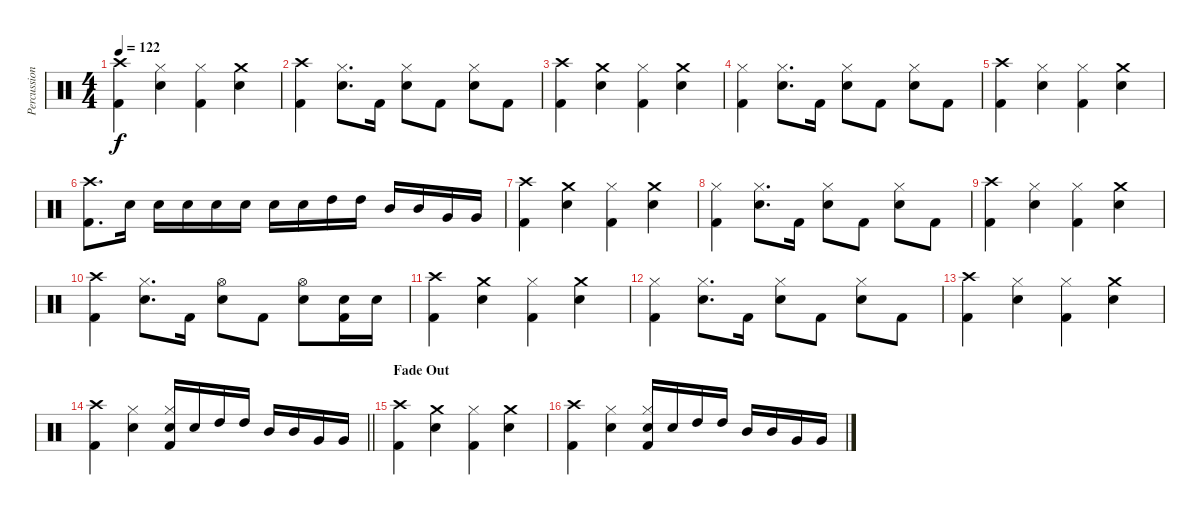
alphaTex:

\track ("Percussion" "Percussion") {instrument percussion}
\staff {score}
\articulation defaults
\ts (4 4)
\tempo 122
\clef neutral
\ks c
("Crash high (hit)" "Kick (hit) 2").4{dy f} ("Hi-Hat (closed)" "Electric Snare (hit)").4 ("Hi-Hat (closed)" "Kick (hit) 2").4 ("Crash medium (hit)" "Electric Snare (hit)").4 |
("Crash high (hit)" "Kick (hit) 2").4 ("Hi-Hat (closed)" "Electric Snare (hit)").8{d} "Kick (hit) 2".16 ("Hi-Hat (closed)" "Electric Snare (hit)").8 "Kick (hit) 2".8 ("Hi-Hat (closed)" "Electric Snare (hit)").8 "Kick (hit) 2".8 |
("Crash high (hit)" "Kick (hit) 2").4 ("Crash medium (hit)" "Electric Snare (hit)").4 ("Hi-Hat (closed)" "Kick (hit) 2").4 ("Crash medium (hit)" "Electric Snare (hit)").4 |
("Hi-Hat (closed)" "Kick (hit) 2").4 ("Hi-Hat (closed)" "Electric Snare (hit)").8{d} "Kick (hit) 2".16 ("Hi-Hat (closed)" "Electric Snare (hit)").8 "Kick (hit) 2".8 ("Hi-Hat (closed)" "Electric Snare (hit)").8 "Kick (hit) 2".8 |
("Crash high (hit)" "Kick (hit) 2").4 ("Hi-Hat (closed)" "Electric Snare (hit)").4 ("Hi-Hat (closed)" "Kick (hit) 2").4 ("Crash medium (hit)" "Electric Snare (hit)").4 |
("Crash high (hit)" "Kick (hit) 2").8{d} "Electric Snare (hit)".16 "Electric Snare (hit)".16 "Electric Snare (hit)".16 "Electric Snare (hit)".16 "Electric Snare (hit)".16 "Electric Snare (hit)".16 "Electric Snare (hit)".16 "High Tom (hit)".16 "High Tom (hit)".16 "Mid Tom (hit)".16 "Mid Tom (hit)".16 "Very Low Tom (hit)".16 "Very Low Tom (hit)".16 |
("Crash high (hit)" "Kick (hit) 2").4 ("Crash medium (hit)" "Electric Snare (hit)").4 ("Hi-Hat (closed)" "Kick (hit) 2").4 ("Crash medium (hit)" "Electric Snare (hit)").4 |
("Hi-Hat (closed)" "Kick (hit) 2").4 ("Hi-Hat (closed)" "Electric Snare (hit)").8{d} "Kick (hit) 2".16 ("Hi-Hat (closed)" "Electric Snare (hit)").8 "Kick (hit) 2".8 ("Hi-Hat (closed)" "Electric Snare (hit)").8 "Kick (hit) 2".8 |
("Crash high (hit)" "Kick (hit) 2").4 ("Hi-Hat (closed)" "Electric Snare (hit)").4 ("Hi-Hat (closed)" "Kick (hit) 2").4 ("Crash medium (hit)" "Electric Snare (hit)").4 |
("Crash high (hit)" "Kick (hit) 2").4 ("Hi-Hat (closed)" "Electric Snare (hit)").8{d} "Kick (hit) 2".16 ("Hi-Hat (open)" "Electric Snare (hit)").8 "Kick (hit) 2".8 ("Hi-Hat (open)" "Electric Snare (hit)").8 ("Electric Snare (hit)" "Kick (hit) 2").16 "Electric Snare (hit)".16 |
("Crash high (hit)" "Kick (hit) 2").4 ("Crash medium (hit)" "Electric Snare (hit)").4 ("Hi-Hat (closed)" "Kick (hit) 2").4 ("Crash medium (hit)" "Electric Snare (hit)").4 |
("Hi-Hat (closed)" "Kick (hit) 2").4 ("Hi-Hat (closed)" "Electric Snare (hit)").8{d} "Kick (hit) 2".16 ("Hi-Hat (closed)" "Electric Snare (hit)").8 "Kick (hit) 2".8 ("Hi-Hat (closed)" "Electric Snare (hit)").8 "Kick (hit) 2".8 |
("Crash high (hit)" "Kick (hit) 2").4 ("Hi-Hat (closed)" "Electric Snare (hit)").4 ("Hi-Hat (closed)" "Kick (hit) 2").4 ("Crash medium (hit)" "Electric Snare (hit)").4 |
\barLineRight lightlight
("Crash high (hit)" "Kick (hit) 2").4 ("Hi-Hat (closed)" "Electric Snare (hit)").4 ("Hi-Hat (closed)" "Electric Snare (hit)" "Kick (hit) 2").16 "Electric Snare (hit)".16 "High Tom (hit)".16 "High Tom (hit)".16 "Mid Tom (hit)".16 "Mid Tom (hit)".16 "Very Low Tom (hit)".16 "Very Low Tom (hit)".16 |
\section ("" "Fade Out")
("Crash high (hit)" "Kick (hit) 2").4 ("Crash medium (hit)" "Electric Snare (hit)").4 ("Hi-Hat (closed)" "Kick (hit) 2").4 ("Crash medium (hit)" "Electric Snare (hit)").4 |
("Crash high (hit)" "Kick (hit) 2").4 ("Hi-Hat (closed)" "Electric Snare (hit)").4 ("Hi-Hat (closed)" "Electric Snare (hit)" "Kick (hit) 2").16 "Electric Snare (hit)".16 "High Tom (hit)".16 "High Tom (hit)".16 "Mid Tom (hit)".16 "Mid Tom (hit)".16 "Very Low Tom (hit)".16 "Very Low Tom (hit)".16
